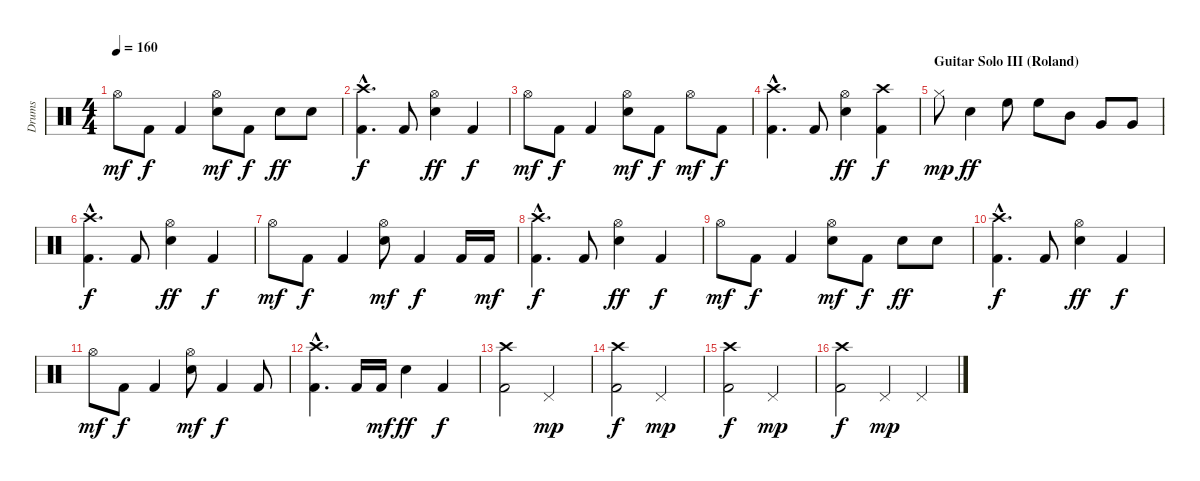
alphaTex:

\track ("Drums" "Drums") {instrument percussion}
\staff {score}
\articulation defaults
\ts (4 4)
\tempo 160
\clef neutral
\ks c "Hi-Hat (open)".8{dy mf} "Kick (hit) 2".8{dy f} "Kick (hit) 2".4
("Snare (hit) 2" "Hi-Hat (open)").8{dy mf} "Kick (hit) 2".8{dy f} "Snare (hit) 2".8{dy ff} "Snare (hit) 2".8 |
("Crash high (hit)"{hac} "Kick (hit) 2"{hac}).4{d dy f} "Kick (hit) 2".8 ("Hi-Hat (open)" "Snare (hit) 2").4{dy ff} "Kick (hit) 2".4{dy f} |
"Hi-Hat (open)".8{dy mf} "Kick (hit) 2".8{dy f} "Kick (hit) 2".4 ("Snare (hit) 2" "Hi-Hat (open)").8{dy mf} "Kick (hit) 2".8{dy f} "Hi-Hat (open)".8{dy mf} "Kick (hit) 2".8{dy f} |
("Crash high (hit)"{hac} "Kick (hit) 2"{hac}).4{d} "Kick (hit) 2".8 ("Hi-Hat (open)" "Snare (hit) 2").4{dy ff} ("Crash high (hit)" "Kick (hit) 2").4{dy f} |
\section ("" "Guitar Solo III (Roland)")
"Hi-Hat (closed)".8{dy mp} "Snare (hit) 2".4{dy ff} "High Floor Tom (hit)".8 "High Floor Tom (hit)".8 "Mid Tom (hit)".8 "Very Low Tom (hit)".8 "Very Low Tom (hit)".8 |
("Crash high (hit)"{hac} "Kick (hit) 2"{hac}).4{d dy f} "Kick (hit) 2".8 ("Hi-Hat (open)" "Snare (hit) 2").4{dy ff} "Kick (hit) 2".4{dy f} |
"Hi-Hat (open)".8{dy mf} "Kick (hit) 2".8{dy f} "Kick (hit) 2".4 ("Snare (hit) 2" "Hi-Hat (open)").8{dy mf} "Kick (hit) 2".4{dy f} "Kick (hit) 2".16 "Kick (hit) 2".16{dy mf} |
("Crash high (hit)"{hac} "Kick (hit) 2"{hac}).4{d dy f} "Kick (hit) 2".8 ("Hi-Hat (open)" "Snare (hit) 2").4{dy ff} "Kick (hit) 2".4{dy f} |
"Hi-Hat (open)".8{dy mf} "Kick (hit) 2".8{dy f} "Kick (hit) 2".4 ("Snare (hit) 2" "Hi-Hat (open)").8{dy mf} "Kick (hit) 2".8{dy f} "Snare (hit) 2".8{dy ff} "Snare (hit) 2".8 |
("Crash high (hit)"{hac} "Kick (hit) 2"{hac}).4{d dy f} "Kick (hit) 2".8 ("Hi-Hat (open)" "Snare (hit) 2").4{dy ff} "Kick (hit) 2".4{dy f} |
"Hi-Hat (open)".8{dy mf} "Kick (hit) 2".8{dy f} "Kick (hit) 2".4 ("Snare (hit) 2" "Hi-Hat (open)").8{dy mf} "Kick (hit) 2".4{dy f} "Kick (hit) 2".8 |
("Crash high (hit)"{hac} "Kick (hit) 2"{hac}).4{d} "Kick (hit) 2".16 "Kick (hit) 2".16{dy mf} "Snare (hit) 2".4{dy ff} "Kick (hit) 2".4{dy f} |
("Crash high (hit)" "Kick (hit) 2").2 "Pedal Hi-Hat (hit)".2{dy mp} |
("Crash high (hit)" "Kick (hit) 2").2{dy f} "Pedal Hi-Hat (hit)".2{dy mp} |
("Crash high (hit)" "Kick (hit) 2").2{dy f} "Pedal Hi-Hat (hit)".2{dy mp} |
("Crash high (hit)" "Kick (hit) 2").2{dy f} "Pedal Hi-Hat (hit)".4{dy mp} "Pedal Hi-Hat (hit)".4
